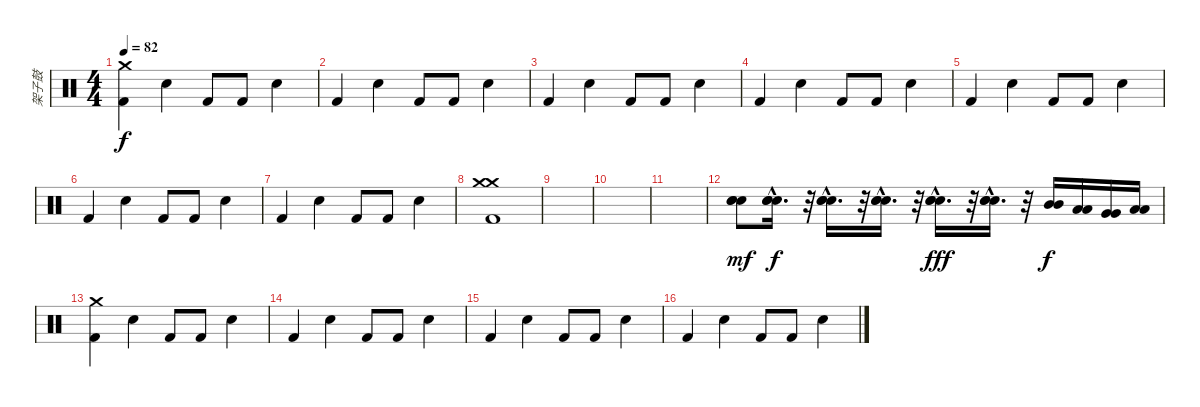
\track ("架子鼓" "架子鼓") {instrument percussion}
\staff {score}
\articulation defaults
\ts (4 4)
\tempo 82
\clef neutral
\ks c
("Kick (hit) 2" "Crash medium (hit)").4{dy f} "Electric Snare (hit)".4 "Kick (hit) 2".8 "Kick (hit) 2".8 "Electric Snare (hit)".4 |
"Kick (hit) 2".4 "Electric Snare (hit)".4 "Kick (hit) 2".8 "Kick (hit) 2".8 "Electric Snare (hit)".4 |
"Kick (hit) 2".4 "Electric Snare (hit)".4 "Kick (hit) 2".8 "Kick (hit) 2".8 "Electric Snare (hit)".4 |
"Kick (hit) 2".4 "Electric Snare (hit)".4 "Kick (hit) 2".8 "Kick (hit) 2".8 "Electric Snare (hit)".4 |
"Kick (hit) 2".4 "Electric Snare (hit)".4 "Kick (hit) 2".8 "Kick (hit) 2".8 "Electric Snare (hit)".4 |
"Kick (hit) 2".4 "Electric Snare (hit)".4 "Kick (hit) 2".8 "Kick (hit) 2".8 "Electric Snare (hit)".4 |
"Kick (hit) 2".4 "Electric Snare (hit)".4 "Kick (hit) 2".8 "Kick (hit) 2".8 "Electric Snare (hit)".4 |
("Kick (hit) 2" "Crash medium (hit)" "Crash medium (hit)").1 |
|
|
|
("Snare (hit) 2" "Snare (hit) 2" "Snare (hit) 2").8{dy mf} ("Snare (hit) 2"{hac} "Snare (hit) 2"{hac} "Snare (hit) 2"{hac}).16{d dy f} r.32 ("Snare (hit) 2"{hac} "Snare (hit) 2"{hac} "Snare (hit) 2"{hac}).16{d} r.32 ("Snare (hit) 2"{hac} "Snare (hit) 2"{hac} "Snare (hit) 2"{hac}).16{d} r.32 ("Snare (hit) 2"{hac} "Snare (hit) 2"{hac} "Snare (hit) 2"{hac}).16{d dy fff} r.32 ("Snare (hit) 2"{hac} "Snare (hit) 2"{hac} "Snare (hit) 2"{hac}).16{d} r.32 ("Mid Tom (hit)" "Mid Tom (hit)").16{dy f} ("Low Tom (hit)" "Low Tom (hit)").16 ("Very Low Tom (hit)" "Very Low Tom (hit)").16 ("Low Floor Tom (hit)" "Low Floor Tom (hit)").16 |
("Kick (hit) 2" "Crash medium (hit)").4 "Electric Snare (hit)".4 "Kick (hit) 2".8 "Kick (hit) 2".8 "Electric Snare (hit)".4 |
"Kick (hit) 2".4 "Electric Snare (hit)".4 "Kick (hit) 2".8 "Kick (hit) 2".8 "Electric Snare (hit)".4 |
"Kick (hit) 2".4 "Electric Snare (hit)".4 "Kick (hit) 2".8 "Kick (hit) 2".8 "Electric Snare (hit)".4 |
"Kick (hit) 2".4 "Electric Snare (hit)".4 "Kick (hit) 2".8 "Kick (hit) 2".8 "Electric Snare (hit)".4
